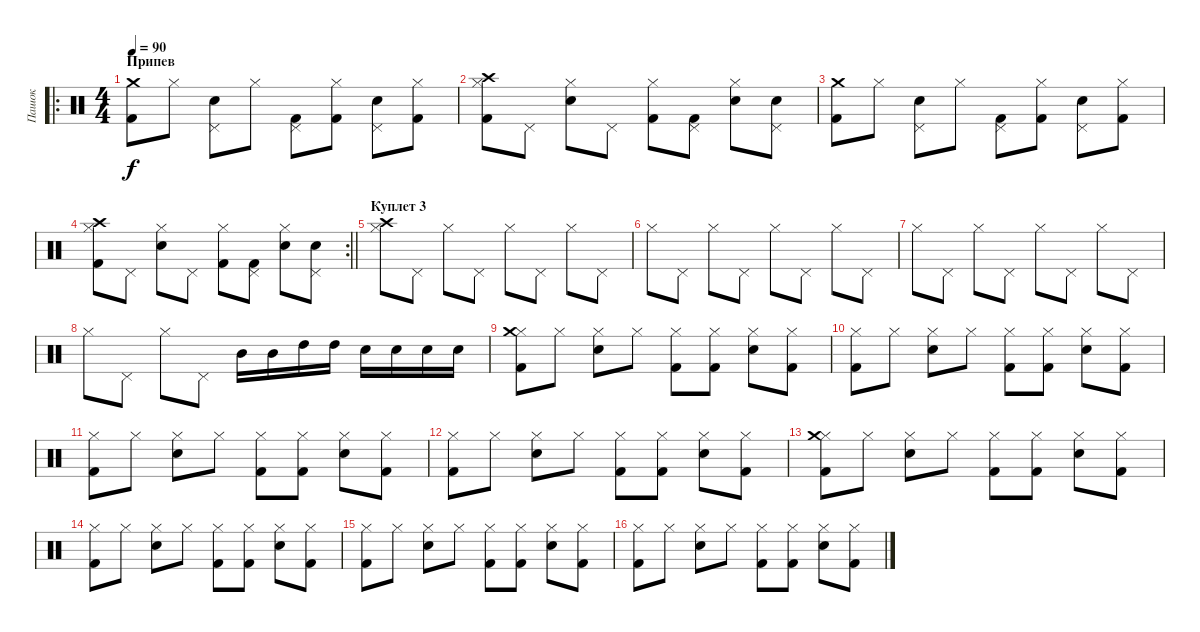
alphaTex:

\track ("Пашок" "Пашок") {instrument percussion}
\staff {score}
\articulation defaults
\ro
\ts (4 4)
\section ("" "Припев")
\tempo 90
\clef neutral
\ks c
("Kick (hit) 2" "Crash medium (hit)").8{dy f} "Hi-Hat (closed)".8 ("Pedal Hi-Hat (hit)" "Electric Snare (hit)").8 "Hi-Hat (closed)".8 ("Pedal Hi-Hat (hit)" "Kick (hit) 2").8 ("Hi-Hat (closed)" "Kick (hit) 2").8 ("Pedal Hi-Hat (hit)" "Electric Snare (hit)").8 ("Hi-Hat (closed)" "Kick (hit) 2").8 |
("Hi-Hat (closed)" "Kick (hit) 2" "Crash high (hit)").8 "Pedal Hi-Hat (hit)".8 ("Hi-Hat (closed)" "Electric Snare (hit)").8 "Pedal Hi-Hat (hit)".8 ("Hi-Hat (closed)" "Kick (hit) 2").8 ("Pedal Hi-Hat (hit)" "Kick (hit) 2").8 ("Hi-Hat (closed)" "Electric Snare (hit)").8 ("Pedal Hi-Hat (hit)" "Electric Snare (hit)").8 |
("Kick (hit) 2" "Crash medium (hit)").8 "Hi-Hat (closed)".8 ("Pedal Hi-Hat (hit)" "Electric Snare (hit)").8 "Hi-Hat (closed)".8 ("Pedal Hi-Hat (hit)" "Kick (hit) 2").8 ("Hi-Hat (closed)" "Kick (hit) 2").8 ("Pedal Hi-Hat (hit)" "Electric Snare (hit)").8 ("Hi-Hat (closed)" "Kick (hit) 2").8 |
\rc 2
\barLineRight lightlight
("Hi-Hat (closed)" "Kick (hit) 2" "Crash high (hit)").8 "Pedal Hi-Hat (hit)".8 ("Hi-Hat (closed)" "Electric Snare (hit)").8 "Pedal Hi-Hat (hit)".8 ("Hi-Hat (closed)" "Kick (hit) 2").8 ("Pedal Hi-Hat (hit)" "Kick (hit) 2").8 ("Hi-Hat (closed)" "Electric Snare (hit)").8 ("Pedal Hi-Hat (hit)" "Electric Snare (hit)").8 |
\section ("" "Куплет 3")
("Hi-Hat (closed)" "Crash high (hit)").8 "Pedal Hi-Hat (hit)".8 "Hi-Hat (closed)".8 "Pedal Hi-Hat (hit)".8 "Hi-Hat (closed)".8 "Pedal Hi-Hat (hit)".8 "Hi-Hat (closed)".8 "Pedal Hi-Hat (hit)".8 |
"Hi-Hat (closed)".8 "Pedal Hi-Hat (hit)".8 "Hi-Hat (closed)".8 "Pedal Hi-Hat (hit)".8 "Hi-Hat (closed)".8 "Pedal Hi-Hat (hit)".8 "Hi-Hat (closed)".8 "Pedal Hi-Hat (hit)".8 |
"Hi-Hat (closed)".8 "Pedal Hi-Hat (hit)".8 "Hi-Hat (closed)".8 "Pedal Hi-Hat (hit)".8 "Hi-Hat (closed)".8 "Pedal Hi-Hat (hit)".8 "Hi-Hat (closed)".8 "Pedal Hi-Hat (hit)".8 |
"Hi-Hat (closed)".8 "Pedal Hi-Hat (hit)".8 "Hi-Hat (closed)".8 "Pedal Hi-Hat (hit)".8 "Mid Tom (hit)".16 "Mid Tom (hit)".16 "High Tom (hit)".16 "High Tom (hit)".16 "Snare (hit) 2".16 "Snare (hit) 2".16 "Electric Snare (hit)".16 "Electric Snare (hit)".16 |
("Hi-Hat (closed)" "Kick (hit) 2" "Crash medium (hit)").8 "Hi-Hat (closed)".8 ("Hi-Hat (closed)" "Electric Snare (hit)").8 "Hi-Hat (closed)".8 ("Hi-Hat (closed)" "Kick (hit) 2").8 ("Hi-Hat (closed)" "Kick (hit) 2").8 ("Hi-Hat (closed)" "Electric Snare (hit)").8 ("Hi-Hat (closed)" "Kick (hit) 2").8 |
("Hi-Hat (closed)" "Kick (hit) 2").8 "Hi-Hat (closed)".8 ("Hi-Hat (closed)" "Electric Snare (hit)").8 "Hi-Hat (closed)".8 ("Hi-Hat (closed)" "Kick (hit) 2").8 ("Hi-Hat (closed)" "Kick (hit) 2").8 ("Hi-Hat (closed)" "Electric Snare (hit)").8 ("Hi-Hat (closed)" "Kick (hit) 2").8 |
("Hi-Hat (closed)" "Kick (hit) 2").8 "Hi-Hat (closed)".8 ("Hi-Hat (closed)" "Electric Snare (hit)").8 "Hi-Hat (closed)".8 ("Hi-Hat (closed)" "Kick (hit) 2").8 ("Hi-Hat (closed)" "Kick (hit) 2").8 ("Hi-Hat (closed)" "Electric Snare (hit)").8 ("Hi-Hat (closed)" "Kick (hit) 2").8 |
("Hi-Hat (closed)" "Kick (hit) 2").8 "Hi-Hat (closed)".8 ("Hi-Hat (closed)" "Electric Snare (hit)").8 "Hi-Hat (closed)".8 ("Hi-Hat (closed)" "Kick (hit) 2").8 ("Hi-Hat (closed)" "Kick (hit) 2").8 ("Hi-Hat (closed)" "Electric Snare (hit)").8 ("Hi-Hat (closed)" "Kick (hit) 2").8 |
("Hi-Hat (closed)" "Kick (hit) 2" "Crash medium (hit)").8 "Hi-Hat (closed)".8 ("Hi-Hat (closed)" "Electric Snare (hit)").8 "Hi-Hat (closed)".8 ("Hi-Hat (closed)" "Kick (hit) 2").8 ("Hi-Hat (closed)" "Kick (hit) 2").8 ("Hi-Hat (closed)" "Electric Snare (hit)").8 ("Hi-Hat (closed)" "Kick (hit) 2").8 |
("Hi-Hat (closed)" "Kick (hit) 2").8 "Hi-Hat (closed)".8 ("Hi-Hat (closed)" "Electric Snare (hit)").8 "Hi-Hat (closed)".8 ("Hi-Hat (closed)" "Kick (hit) 2").8 ("Hi-Hat (closed)" "Kick (hit) 2").8 ("Hi-Hat (closed)" "Electric Snare (hit)").8 ("Hi-Hat (closed)" "Kick (hit) 2").8 |
("Hi-Hat (closed)" "Kick (hit) 2").8 "Hi-Hat (closed)".8 ("Hi-Hat (closed)" "Electric Snare (hit)").8 "Hi-Hat (closed)".8 ("Hi-Hat (closed)" "Kick (hit) 2").8 ("Hi-Hat (closed)" "Kick (hit) 2").8 ("Hi-Hat (closed)" "Electric Snare (hit)").8 ("Hi-Hat (closed)" "Kick (hit) 2").8 |
("Hi-Hat (closed)" "Kick (hit) 2").8 "Hi-Hat (closed)".8 ("Hi-Hat (closed)" "Electric Snare (hit)").8 "Hi-Hat (closed)".8 ("Hi-Hat (closed)" "Kick (hit) 2").8 ("Hi-Hat (closed)" "Kick (hit) 2").8 ("Hi-Hat (closed)" "Electric Snare (hit)").8 ("Hi-Hat (closed)" "Kick (hit) 2").8
